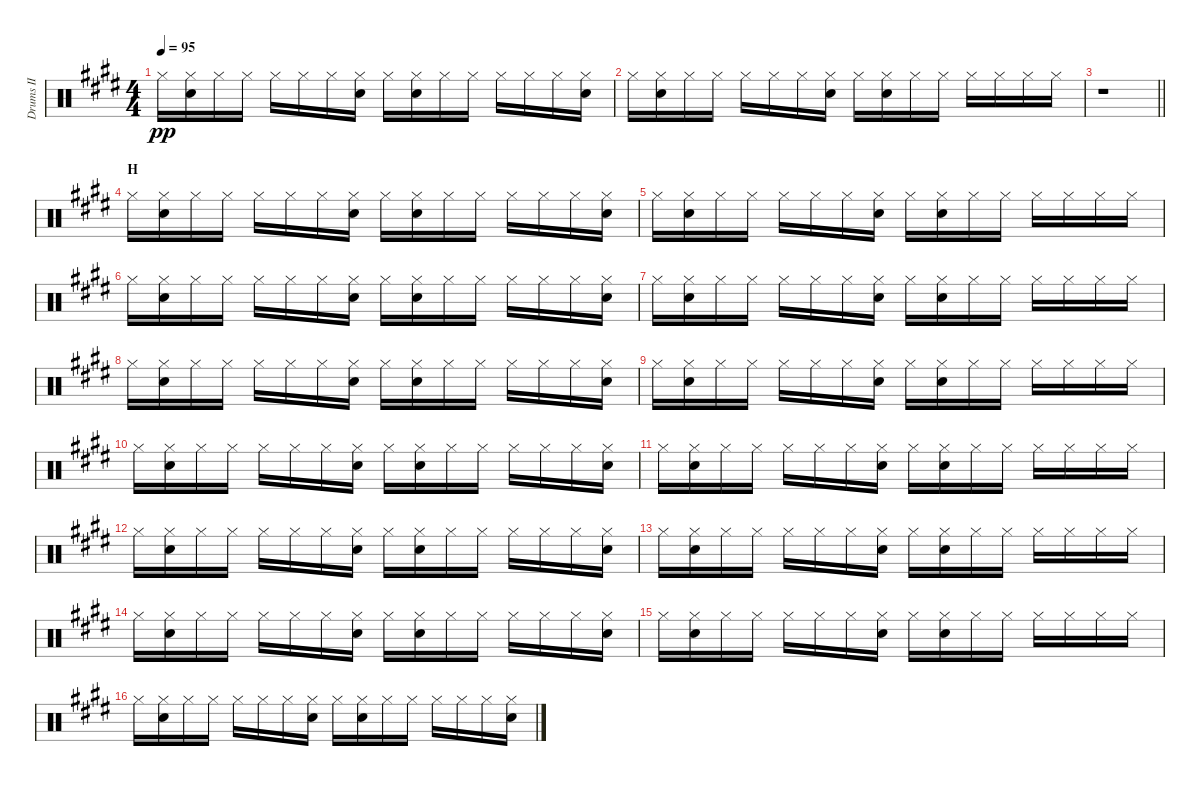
\track ("Drums II" "Drums II") {instrument percussion}
\staff {score}
\articulation defaults
\ts (4 4)
\tempo 95
\clef neutral
\ks e "Hi-Hat (closed)".16{dy pp}
("Hi-Hat (closed)" "Snare (hit) 2").16 "Hi-Hat (closed)".16 "Hi-Hat (closed)".16 "Hi-Hat (closed)".16 "Hi-Hat (closed)".16 "Hi-Hat (closed)".16 ("Hi-Hat (closed)" "Snare (hit) 2").16 "Hi-Hat (closed)".16 ("Hi-Hat (closed)" "Snare (hit) 2").16 "Hi-Hat (closed)".16 "Hi-Hat (closed)".16 "Hi-Hat (closed)".16 "Hi-Hat (closed)".16 "Hi-Hat (closed)".16 ("Hi-Hat (closed)" "Snare (hit) 2").16 |
"Hi-Hat (closed)".16 ("Hi-Hat (closed)" "Snare (hit) 2").16 "Hi-Hat (closed)".16 "Hi-Hat (closed)".16 "Hi-Hat (closed)".16 "Hi-Hat (closed)".16 "Hi-Hat (closed)".16 ("Hi-Hat (closed)" "Snare (hit) 2").16 "Hi-Hat (closed)".16 ("Hi-Hat (closed)" "Snare (hit) 2").16 "Hi-Hat (closed)".16 "Hi-Hat (closed)".16 "Hi-Hat (closed)".16 "Hi-Hat (closed)".16 "Hi-Hat (closed)".16 "Hi-Hat (closed)".16 |
\barLineRight lightlight
r.1 |
\section ("" "H")
"Hi-Hat (closed)".16 ("Hi-Hat (closed)" "Snare (hit) 2").16 "Hi-Hat (closed)".16 "Hi-Hat (closed)".16 "Hi-Hat (closed)".16 "Hi-Hat (closed)".16 "Hi-Hat (closed)".16 ("Hi-Hat (closed)" "Snare (hit) 2").16 "Hi-Hat (closed)".16 ("Hi-Hat (closed)" "Snare (hit) 2").16 "Hi-Hat (closed)".16 "Hi-Hat (closed)".16 "Hi-Hat (closed)".16 "Hi-Hat (closed)".16 "Hi-Hat (closed)".16 ("Hi-Hat (closed)" "Snare (hit) 2").16 |
"Hi-Hat (closed)".16 ("Hi-Hat (closed)" "Snare (hit) 2").16 "Hi-Hat (closed)".16 "Hi-Hat (closed)".16 "Hi-Hat (closed)".16 "Hi-Hat (closed)".16 "Hi-Hat (closed)".16 ("Hi-Hat (closed)" "Snare (hit) 2").16 "Hi-Hat (closed)".16 ("Hi-Hat (closed)" "Snare (hit) 2").16 "Hi-Hat (closed)".16 "Hi-Hat (closed)".16 "Hi-Hat (closed)".16 "Hi-Hat (closed)".16 "Hi-Hat (closed)".16 "Hi-Hat (closed)".16 |
"Hi-Hat (closed)".16 ("Hi-Hat (closed)" "Snare (hit) 2").16 "Hi-Hat (closed)".16 "Hi-Hat (closed)".16 "Hi-Hat (closed)".16 "Hi-Hat (closed)".16 "Hi-Hat (closed)".16 ("Hi-Hat (closed)" "Snare (hit) 2").16 "Hi-Hat (closed)".16 ("Hi-Hat (closed)" "Snare (hit) 2").16 "Hi-Hat (closed)".16 "Hi-Hat (closed)".16 "Hi-Hat (closed)".16 "Hi-Hat (closed)".16 "Hi-Hat (closed)".16 ("Hi-Hat (closed)" "Snare (hit) 2").16 |
"Hi-Hat (closed)".16 ("Hi-Hat (closed)" "Snare (hit) 2").16 "Hi-Hat (closed)".16 "Hi-Hat (closed)".16 "Hi-Hat (closed)".16 "Hi-Hat (closed)".16 "Hi-Hat (closed)".16 ("Hi-Hat (closed)" "Snare (hit) 2").16 "Hi-Hat (closed)".16 ("Hi-Hat (closed)" "Snare (hit) 2").16 "Hi-Hat (closed)".16 "Hi-Hat (closed)".16 "Hi-Hat (closed)".16 "Hi-Hat (closed)".16 "Hi-Hat (closed)".16 "Hi-Hat (closed)".16 |
"Hi-Hat (closed)".16 ("Hi-Hat (closed)" "Snare (hit) 2").16 "Hi-Hat (closed)".16 "Hi-Hat (closed)".16 "Hi-Hat (closed)".16 "Hi-Hat (closed)".16 "Hi-Hat (closed)".16 ("Hi-Hat (closed)" "Snare (hit) 2").16 "Hi-Hat (closed)".16 ("Hi-Hat (closed)" "Snare (hit) 2").16 "Hi-Hat (closed)".16 "Hi-Hat (closed)".16 "Hi-Hat (closed)".16 "Hi-Hat (closed)".16 "Hi-Hat (closed)".16 ("Hi-Hat (closed)" "Snare (hit) 2").16 |
"Hi-Hat (closed)".16 ("Hi-Hat (closed)" "Snare (hit) 2").16 "Hi-Hat (closed)".16 "Hi-Hat (closed)".16 "Hi-Hat (closed)".16 "Hi-Hat (closed)".16 "Hi-Hat (closed)".16 ("Hi-Hat (closed)" "Snare (hit) 2").16 "Hi-Hat (closed)".16 ("Hi-Hat (closed)" "Snare (hit) 2").16 "Hi-Hat (closed)".16 "Hi-Hat (closed)".16 "Hi-Hat (closed)".16 "Hi-Hat (closed)".16 "Hi-Hat (closed)".16 "Hi-Hat (closed)".16 |
"Hi-Hat (closed)".16 ("Hi-Hat (closed)" "Snare (hit) 2").16 "Hi-Hat (closed)".16 "Hi-Hat (closed)".16 "Hi-Hat (closed)".16 "Hi-Hat (closed)".16 "Hi-Hat (closed)".16 ("Hi-Hat (closed)" "Snare (hit) 2").16 "Hi-Hat (closed)".16 ("Hi-Hat (closed)" "Snare (hit) 2").16 "Hi-Hat (closed)".16 "Hi-Hat (closed)".16 "Hi-Hat (closed)".16 "Hi-Hat (closed)".16 "Hi-Hat (closed)".16 ("Hi-Hat (closed)" "Snare (hit) 2").16 |
"Hi-Hat (closed)".16 ("Hi-Hat (closed)" "Snare (hit) 2").16 "Hi-Hat (closed)".16 "Hi-Hat (closed)".16 "Hi-Hat (closed)".16 "Hi-Hat (closed)".16 "Hi-Hat (closed)".16 ("Hi-Hat (closed)" "Snare (hit) 2").16 "Hi-Hat (closed)".16 ("Hi-Hat (closed)" "Snare (hit) 2").16 "Hi-Hat (closed)".16 "Hi-Hat (closed)".16 "Hi-Hat (closed)".16 "Hi-Hat (closed)".16 "Hi-Hat (closed)".16 "Hi-Hat (closed)".16 |
"Hi-Hat (closed)".16 ("Hi-Hat (closed)" "Snare (hit) 2").16 "Hi-Hat (closed)".16 "Hi-Hat (closed)".16 "Hi-Hat (closed)".16 "Hi-Hat (closed)".16 "Hi-Hat (closed)".16 ("Hi-Hat (closed)" "Snare (hit) 2").16 "Hi-Hat (closed)".16 ("Hi-Hat (closed)" "Snare (hit) 2").16 "Hi-Hat (closed)".16 "Hi-Hat (closed)".16 "Hi-Hat (closed)".16 "Hi-Hat (closed)".16 "Hi-Hat (closed)".16 ("Hi-Hat (closed)" "Snare (hit) 2").16 |
"Hi-Hat (closed)".16 ("Hi-Hat (closed)" "Snare (hit) 2").16 "Hi-Hat (closed)".16 "Hi-Hat (closed)".16 "Hi-Hat (closed)".16 "Hi-Hat (closed)".16 "Hi-Hat (closed)".16 ("Hi-Hat (closed)" "Snare (hit) 2").16 "Hi-Hat (closed)".16 ("Hi-Hat (closed)" "Snare (hit) 2").16 "Hi-Hat (closed)".16 "Hi-Hat (closed)".16 "Hi-Hat (closed)".16 "Hi-Hat (closed)".16 "Hi-Hat (closed)".16 "Hi-Hat (closed)".16 |
"Hi-Hat (closed)".16 ("Hi-Hat (closed)" "Snare (hit) 2").16 "Hi-Hat (closed)".16 "Hi-Hat (closed)".16 "Hi-Hat (closed)".16 "Hi-Hat (closed)".16 "Hi-Hat (closed)".16 ("Hi-Hat (closed)" "Snare (hit) 2").16 "Hi-Hat (closed)".16 ("Hi-Hat (closed)" "Snare (hit) 2").16 "Hi-Hat (closed)".16 "Hi-Hat (closed)".16 "Hi-Hat (closed)".16 "Hi-Hat (closed)".16 "Hi-Hat (closed)".16 ("Hi-Hat (closed)" "Snare (hit) 2").16 |
"Hi-Hat (closed)".16 ("Hi-Hat (closed)" "Snare (hit) 2").16 "Hi-Hat (closed)".16 "Hi-Hat (closed)".16 "Hi-Hat (closed)".16 "Hi-Hat (closed)".16 "Hi-Hat (closed)".16 ("Hi-Hat (closed)" "Snare (hit) 2").16 "Hi-Hat (closed)".16 ("Hi-Hat (closed)" "Snare (hit) 2").16 "Hi-Hat (closed)".16 "Hi-Hat (closed)".16 "Hi-Hat (closed)".16 "Hi-Hat (closed)".16 "Hi-Hat (closed)".16 "Hi-Hat (closed)".16 |
"Hi-Hat (closed)".16 ("Hi-Hat (closed)" "Snare (hit) 2").16 "Hi-Hat (closed)".16 "Hi-Hat (closed)".16 "Hi-Hat (closed)".16 "Hi-Hat (closed)".16 "Hi-Hat (closed)".16 ("Hi-Hat (closed)" "Snare (hit) 2").16 "Hi-Hat (closed)".16 ("Hi-Hat (closed)" "Snare (hit) 2").16 "Hi-Hat (closed)".16 "Hi-Hat (closed)".16 "Hi-Hat (closed)".16 "Hi-Hat (closed)".16 "Hi-Hat (closed)".16 ("Hi-Hat (closed)" "Snare (hit) 2").16
